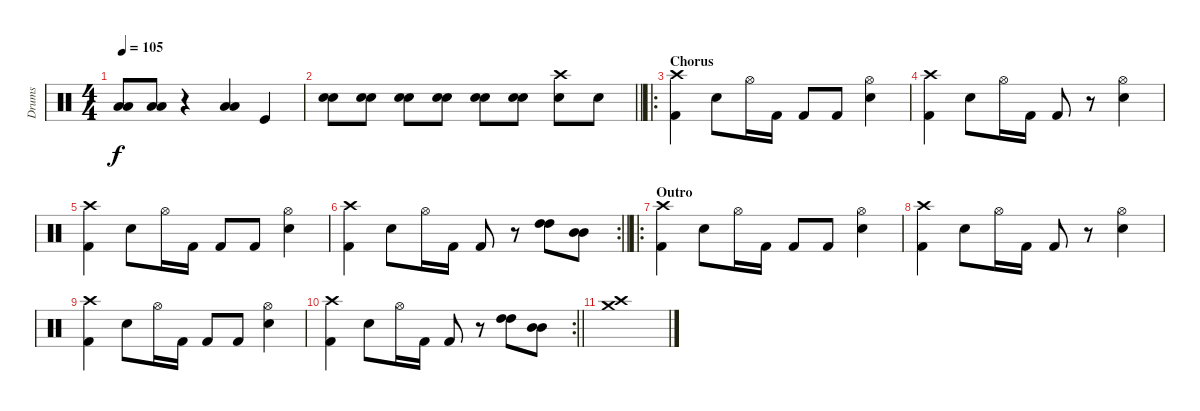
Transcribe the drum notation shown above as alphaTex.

\track ("Drums" "Drums") {instrument percussion}
\staff {score}
\articulation defaults
\ts (4 4)
\tempo 105
\clef neutral
\ks c
("Low Floor Tom (hit)" "Low Floor Tom (hit)").8{dy f} ("Low Floor Tom (hit)" "Low Floor Tom (hit)").8 r.4 ("Low Floor Tom (hit)" "Low Floor Tom (hit)").4 "Kick (hit)".4 |
\barLineRight lightlight
("Snare (hit) 2" "Snare (hit) 2").8{volume 16} ("Snare (hit) 2" "Snare (hit) 2").8 ("Snare (hit) 2" "Snare (hit) 2").8 ("Snare (hit) 2" "Snare (hit) 2").8 ("Snare (hit) 2" "Snare (hit) 2").8 ("Snare (hit) 2" "Snare (hit) 2").8 ("Snare (hit) 2" "Crash high (hit)").8 "Snare (hit) 2".8 |
\ro
\section ("" "Chorus")
("Crash high (hit)" "Kick (hit) 2").4 "Snare (hit) 2".8 "Hi-Hat (open)".16 "Kick (hit) 2".16 "Kick (hit) 2".8 "Kick (hit) 2".8 ("Snare (hit) 2" "Hi-Hat (open)").4 |
("Crash high (hit)" "Kick (hit) 2").4 "Snare (hit) 2".8 "Hi-Hat (open)".16 "Kick (hit) 2".16 "Kick (hit) 2".8 r.8 ("Snare (hit) 2" "Hi-Hat (open)").4 |
("Crash high (hit)" "Kick (hit) 2").4 "Snare (hit) 2".8 "Hi-Hat (open)".16 "Kick (hit) 2".16 "Kick (hit) 2".8 "Kick (hit) 2".8 ("Snare (hit) 2" "Hi-Hat (open)").4 |
\rc 2
\barLineRight lightlight
("Crash high (hit)" "Kick (hit) 2").4 "Snare (hit) 2".8 "Hi-Hat (open)".16 "Kick (hit) 2".16 "Kick (hit) 2".8 r.8 ("High Tom (hit)" "High Tom (hit)").8 ("Mid Tom (hit)" "Mid Tom (hit)").8 |
\ro
\section ("" "Outro")
("Crash high (hit)" "Kick (hit) 2").4 "Snare (hit) 2".8 "Hi-Hat (open)".16 "Kick (hit) 2".16 "Kick (hit) 2".8 "Kick (hit) 2".8 ("Snare (hit) 2" "Hi-Hat (open)").4 |
("Crash high (hit)" "Kick (hit) 2").4 "Snare (hit) 2".8 "Hi-Hat (open)".16 "Kick (hit) 2".16 "Kick (hit) 2".8 r.8 ("Snare (hit) 2" "Hi-Hat (open)").4 |
("Crash high (hit)" "Kick (hit) 2").4 "Snare (hit) 2".8 "Hi-Hat (open)".16 "Kick (hit) 2".16 "Kick (hit) 2".8 "Kick (hit) 2".8 ("Snare (hit) 2" "Hi-Hat (open)").4 |
\rc 2
\barLineRight lightlight
("Crash high (hit)" "Kick (hit) 2").4 "Snare (hit) 2".8 "Hi-Hat (open)".16 "Kick (hit) 2".16 "Kick (hit) 2".8 r.8 ("High Tom (hit)" "High Tom (hit)").8 ("Mid Tom (hit)" "Mid Tom (hit)").8 |
("Crash medium (hit)" "Crash high (hit)").1
